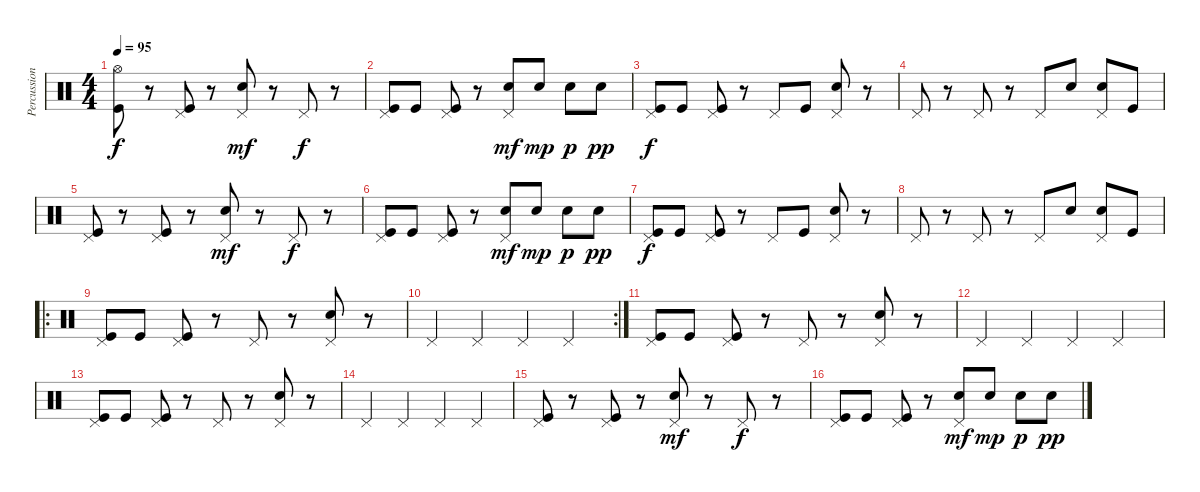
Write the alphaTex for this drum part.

\track ("Percussion" "Percussion") {instrument percussion}
\staff {score}
\articulation defaults
\ts (4 4)
\tempo 95
\clef neutral
\ks c
("Hi-Hat (open)" "Kick (hit)").8{dy f} r.8 ("Pedal Hi-Hat (hit)" "Kick (hit)").8 r.8 ("Pedal Hi-Hat (hit)" "Electric Snare (hit)").8{dy mf} r.8 "Pedal Hi-Hat (hit)".8{dy f} r.8 |
("Pedal Hi-Hat (hit)" "Kick (hit)").8 "Kick (hit)".8 ("Pedal Hi-Hat (hit)" "Kick (hit)").8 r.8 ("Pedal Hi-Hat (hit)" "Electric Snare (hit)").8{dy mf} "Electric Snare (hit)".8{dy mp} "Electric Snare (hit)".8{dy p} "Electric Snare (hit)".8{dy pp} |
("Pedal Hi-Hat (hit)" "Kick (hit)").8{dy f} "Kick (hit)".8 ("Pedal Hi-Hat (hit)" "Kick (hit)").8 r.8 "Pedal Hi-Hat (hit)".8 "Kick (hit)".8 ("Pedal Hi-Hat (hit)" "Electric Snare (hit)").8 r.8 |
"Pedal Hi-Hat (hit)".8 r.8 "Pedal Hi-Hat (hit)".8 r.8 "Pedal Hi-Hat (hit)".8 "Electric Snare (hit)".8 ("Pedal Hi-Hat (hit)" "Electric Snare (hit)").8 "Kick (hit)".8 |
("Pedal Hi-Hat (hit)" "Kick (hit)").8 r.8 ("Pedal Hi-Hat (hit)" "Kick (hit)").8 r.8 ("Pedal Hi-Hat (hit)" "Electric Snare (hit)").8{dy mf} r.8 "Pedal Hi-Hat (hit)".8{dy f} r.8 |
("Pedal Hi-Hat (hit)" "Kick (hit)").8 "Kick (hit)".8 ("Pedal Hi-Hat (hit)" "Kick (hit)").8 r.8 ("Pedal Hi-Hat (hit)" "Electric Snare (hit)").8{dy mf} "Electric Snare (hit)".8{dy mp} "Electric Snare (hit)".8{dy p} "Electric Snare (hit)".8{dy pp} |
("Pedal Hi-Hat (hit)" "Kick (hit)").8{dy f} "Kick (hit)".8 ("Pedal Hi-Hat (hit)" "Kick (hit)").8 r.8 "Pedal Hi-Hat (hit)".8 "Kick (hit)".8 ("Pedal Hi-Hat (hit)" "Electric Snare (hit)").8 r.8 |
"Pedal Hi-Hat (hit)".8 r.8 "Pedal Hi-Hat (hit)".8 r.8 "Pedal Hi-Hat (hit)".8 "Electric Snare (hit)".8 ("Pedal Hi-Hat (hit)" "Electric Snare (hit)").8 "Kick (hit)".8 |
\ro
("Pedal Hi-Hat (hit)" "Kick (hit)").8 "Kick (hit)".8 ("Pedal Hi-Hat (hit)" "Kick (hit)").8 r.8 "Pedal Hi-Hat (hit)".8 r.8 ("Pedal Hi-Hat (hit)" "Electric Snare (hit)").8 r.8 |
\rc 2 "Pedal Hi-Hat (hit)".4 "Pedal Hi-Hat (hit)".4 "Pedal Hi-Hat (hit)".4 "Pedal Hi-Hat (hit)".4
|
("Pedal Hi-Hat (hit)" "Kick (hit)").8 "Kick (hit)".8 ("Pedal Hi-Hat (hit)" "Kick (hit)").8 r.8 "Pedal Hi-Hat (hit)".8 r.8 ("Pedal Hi-Hat (hit)" "Electric Snare (hit)").8 r.8 |
"Pedal Hi-Hat (hit)".4 "Pedal Hi-Hat (hit)".4 "Pedal Hi-Hat (hit)".4 "Pedal Hi-Hat (hit)".4 |
("Pedal Hi-Hat (hit)" "Kick (hit)").8 "Kick (hit)".8 ("Pedal Hi-Hat (hit)" "Kick (hit)").8 r.8 "Pedal Hi-Hat (hit)".8 r.8 ("Pedal Hi-Hat (hit)" "Electric Snare (hit)").8 r.8 |
"Pedal Hi-Hat (hit)".4 "Pedal Hi-Hat (hit)".4 "Pedal Hi-Hat (hit)".4 "Pedal Hi-Hat (hit)".4 |
("Pedal Hi-Hat (hit)" "Kick (hit)").8 r.8 ("Pedal Hi-Hat (hit)" "Kick (hit)").8 r.8 ("Pedal Hi-Hat (hit)" "Electric Snare (hit)").8{dy mf} r.8 "Pedal Hi-Hat (hit)".8{dy f} r.8 |
("Pedal Hi-Hat (hit)" "Kick (hit)").8 "Kick (hit)".8 ("Pedal Hi-Hat (hit)" "Kick (hit)").8 r.8 ("Pedal Hi-Hat (hit)" "Electric Snare (hit)").8{dy mf} "Electric Snare (hit)".8{dy mp} "Electric Snare (hit)".8{dy p} "Electric Snare (hit)".8{dy pp}
